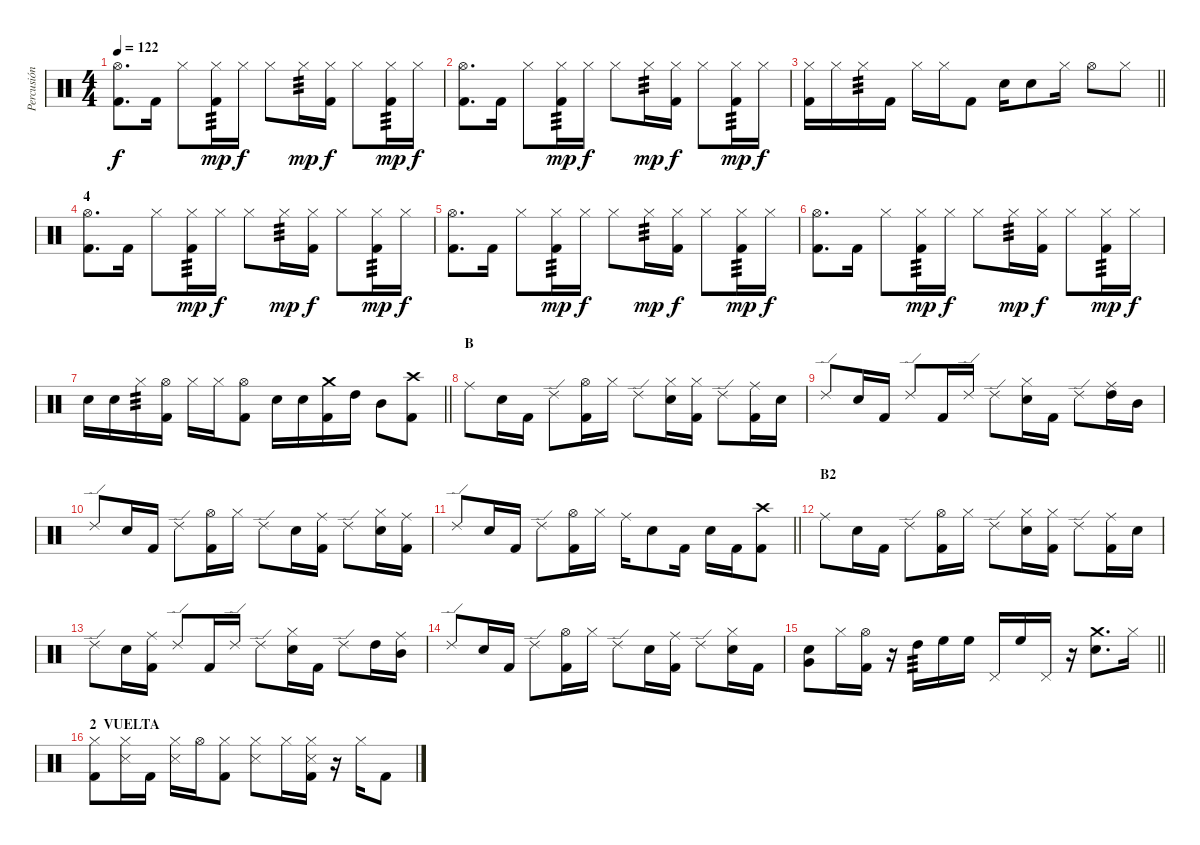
\track ("Percusión" "Percusión") {instrument percussion}
\staff {score}
\articulation defaults
\ts (4 4)
\tempo 122
\clef neutral
\ks c
("Hi-Hat (open)" "Kick (hit) 2").8{d dy f} "Kick (hit) 2".16 "Hi-Hat (closed)".8 ("Kick (hit) 2" "Hi-Hat (closed)").16{tp 3 dy mp} "Hi-Hat (closed)".16{dy f} "Hi-Hat (closed)".8 "Hi-Hat (closed)".16{tp 3 dy mp} ("Kick (hit) 2" "Hi-Hat (closed)").16{dy f} "Hi-Hat (closed)".8 ("Kick (hit) 2" "Hi-Hat (closed)").16{tp 3 dy mp} "Hi-Hat (closed)".16{dy f} |
("Hi-Hat (open)" "Kick (hit) 2").8{d} "Kick (hit) 2".16 "Hi-Hat (closed)".8 ("Kick (hit) 2" "Hi-Hat (closed)").16{tp 3 dy mp} "Hi-Hat (closed)".16{dy f} "Hi-Hat (closed)".8 "Hi-Hat (closed)".16{tp 3 dy mp} ("Kick (hit) 2" "Hi-Hat (closed)").16{dy f} "Hi-Hat (closed)".8 ("Kick (hit) 2" "Hi-Hat (closed)").16{tp 3 dy mp} "Hi-Hat (closed)".16{dy f} |
\barLineRight lightlight
("Hi-Hat (closed)" "Kick (hit) 2").16 "Hi-Hat (closed)".16 "Hi-Hat (closed)".16{tp 3} "Kick (hit) 2".16 "Hi-Hat (closed)".16 "Hi-Hat (closed)".16 "Kick (hit) 2".8 "Electric Snare (hit)".16 "Electric Snare (hit)".8 "Hi-Hat (closed)".16 "Hi-Hat (open)".8 "Hi-Hat (closed)".8 |
\section ("" "4")
("Hi-Hat (open)" "Kick (hit) 2").8{d} "Kick (hit) 2".16 "Hi-Hat (closed)".8 ("Kick (hit) 2" "Hi-Hat (closed)").16{tp 3 dy mp} "Hi-Hat (closed)".16{dy f} "Hi-Hat (closed)".8 "Hi-Hat (closed)".16{tp 3 dy mp} ("Kick (hit) 2" "Hi-Hat (closed)").16{dy f} "Hi-Hat (closed)".8 ("Kick (hit) 2" "Hi-Hat (closed)").16{tp 3 dy mp} "Hi-Hat (closed)".16{dy f} |
("Hi-Hat (open)" "Kick (hit) 2").8{d} "Kick (hit) 2".16 "Hi-Hat (closed)".8 ("Kick (hit) 2" "Hi-Hat (closed)").16{tp 3 dy mp} "Hi-Hat (closed)".16{dy f} "Hi-Hat (closed)".8 "Hi-Hat (closed)".16{tp 3 dy mp} ("Kick (hit) 2" "Hi-Hat (closed)").16{dy f} "Hi-Hat (closed)".8 ("Kick (hit) 2" "Hi-Hat (closed)").16{tp 3 dy mp} "Hi-Hat (closed)".16{dy f} |
("Hi-Hat (open)" "Kick (hit) 2").8{d} "Kick (hit) 2".16 "Hi-Hat (closed)".8 ("Kick (hit) 2" "Hi-Hat (closed)").16{tp 3 dy mp} "Hi-Hat (closed)".16{dy f} "Hi-Hat (closed)".8 "Hi-Hat (closed)".16{tp 3 dy mp} ("Kick (hit) 2" "Hi-Hat (closed)").16{dy f} "Hi-Hat (closed)".8 ("Kick (hit) 2" "Hi-Hat (closed)").16{tp 3 dy mp} "Hi-Hat (closed)".16{dy f} |
\barLineRight lightlight "Electric Snare (hit)".16 "Electric Snare (hit)".16 "Hi-Hat (closed)".16{tp 3}
("Hi-Hat (open)" "Kick (hit) 2").16 "Hi-Hat (closed)".16 "Hi-Hat (closed)".16 ("Hi-Hat (open)" "Kick (hit) 2").8 "Electric Snare (hit)".16 "Electric Snare (hit)".16 ("Crash medium (hit)" "Kick (hit) 2").16 "High Tom (hit)".16 "Mid Tom (hit)".8 ("Crash high (hit)" "Kick (hit) 2").8 |
\section ("" "B")
"Ride (middle)".8 "Electric Snare (hit)".16 "Kick (hit) 2".16 "Ride (edge) 2".8 ("Hi-Hat (open)" "Kick (hit) 2").16 "Hi-Hat (closed)".16 "Ride (edge) 2".8 ("Electric Snare (hit)" "Hi-Hat (closed)").16 ("Kick (hit) 2" "Hi-Hat (closed)").16 "Ride (edge) 2".8 ("Ride (middle)" "Kick (hit) 2").16 "Electric Snare (hit)".16 |
"Ride (edge) 2".8 "Electric Snare (hit)".16 "Kick (hit) 2".16 "Ride (edge) 2".8 "Kick (hit) 2".16 "Ride (edge) 2".16 "Ride (edge) 2".8 ("Hi-Hat (closed)" "Electric Snare (hit)").16 "Kick (hit) 2".16 "Ride (edge) 2".8 ("Ride (middle)" "High Tom (hit)").16 "Mid Tom (hit)".16 |
"Ride (edge) 2".8 "Electric Snare (hit)".16 "Kick (hit) 2".16 "Ride (edge) 2".8 ("Hi-Hat (open)" "Kick (hit) 2").16 "Hi-Hat (closed)".16 "Ride (edge) 2".8 "Electric Snare (hit)".16 ("Ride (middle)" "Kick (hit) 2").16 "Ride (edge) 2".8 ("Hi-Hat (closed)" "Electric Snare (hit)").16 ("Ride (middle)" "Kick (hit) 2").16 |
\barLineRight lightlight "Ride (edge) 2".8 "Electric Snare (hit)".16 "Kick (hit) 2".16 "Ride (edge) 2".8
("Hi-Hat (open)" "Kick (hit) 2").16 "Hi-Hat (closed)".16 "Ride (middle)".16 "Electric Snare (hit)".8 "Kick (hit) 2".16 "Electric Snare (hit)".16 "Kick (hit) 2".16 ("Crash high (hit)" "Kick (hit) 2").8 |
\section ("" "B2")
"Ride (middle)".8 "Electric Snare (hit)".16 "Kick (hit) 2".16 "Ride (edge) 2".8 ("Hi-Hat (open)" "Kick (hit) 2").16 "Hi-Hat (closed)".16 "Ride (edge) 2".8 ("Electric Snare (hit)" "Hi-Hat (closed)").16 ("Kick (hit) 2" "Hi-Hat (closed)").16 "Ride (edge) 2".8 ("Ride (middle)" "Kick (hit) 2").16 "Electric Snare (hit)".16 |
"Ride (edge) 2".8 "Electric Snare (hit)".16 ("Ride (middle)" "Kick (hit) 2").16 "Ride (edge) 2".8 "Kick (hit) 2".16 "Ride (edge) 2".16 "Ride (edge) 2".8 ("Hi-Hat (closed)" "Electric Snare (hit)").16 "Kick (hit) 2".16 "Ride (edge) 2".8 "High Tom (hit)".16 ("Ride (middle)" "Mid Tom (hit)").16 |
"Ride (edge) 2".8 "Electric Snare (hit)".16 "Kick (hit) 2".16 "Ride (edge) 2".8 ("Hi-Hat (open)" "Kick (hit) 2").16 "Hi-Hat (closed)".16 "Ride (edge) 2".8 "Electric Snare (hit)".16 ("Ride (middle)" "Kick (hit) 2").16 "Ride (edge) 2".8 ("Hi-Hat (closed)" "Electric Snare (hit)").16 "Kick (hit) 2".16 |
\barLineRight lightlight
("Electric Snare (hit)" "Very Low Tom (hit)").8 "Hi-Hat (closed)".16 ("Hi-Hat (open)" "Kick (hit) 2").16 r.16 "High Tom (hit)".16{tp 3} "High Floor Tom (hit)".16 "High Floor Tom (hit)".16 "Pedal Hi-Hat (hit)".16 "High Floor Tom (hit)".16 "Pedal Hi-Hat (hit)".16 r.16 ("Electric Snare (hit)" "Crash medium (hit)").8{d} "Hi-Hat (closed)".16 |
\section ("" "2  VUELTA")
("Hi-Hat (closed)" "Kick (hit) 2").8 ("Hi-Hat (closed)" "Snare (side stick) 3").16 "Kick (hit) 2".16 ("Hi-Hat (closed)" "Snare (side stick) 3").16 "Hi-Hat (open)".16 ("Hi-Hat (closed)" "Kick (hit) 2").8 ("Hi-Hat (closed)" "Snare (side stick) 3").8 "Hi-Hat (closed)".16 ("Snare (side stick) 3" "Hi-Hat (closed)" "Kick (hit) 2").16 r.16 "Hi-Hat (closed)".16 "Kick (hit) 2".8
